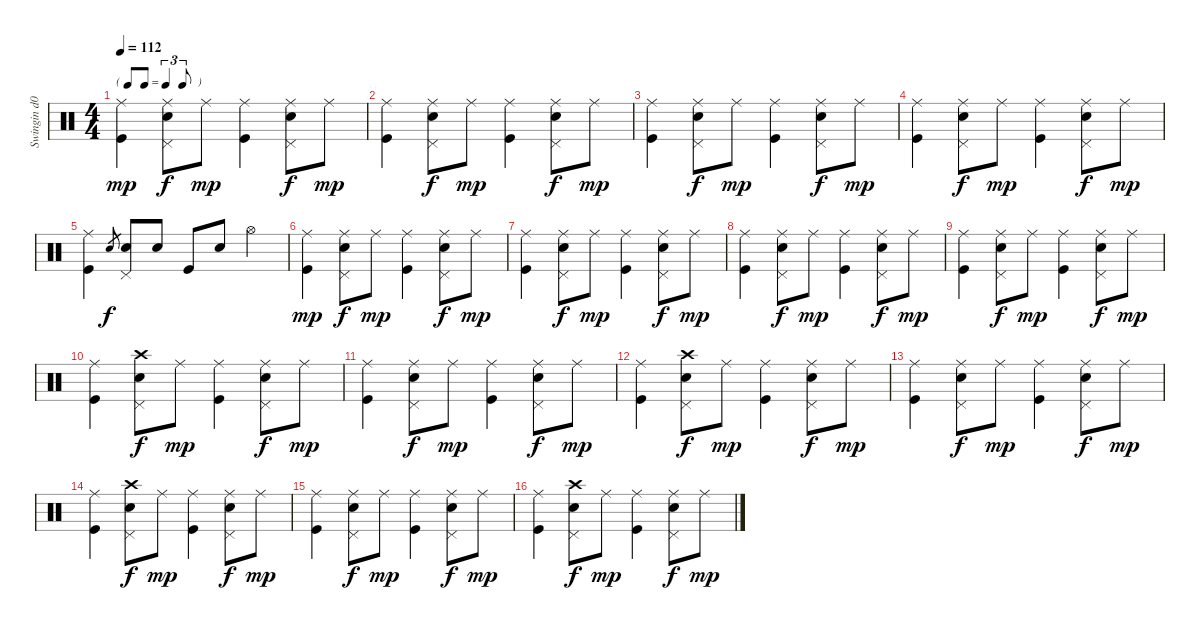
\track ("Swingin d00d" "Swingin d0") {instrument percussion}
\staff {score}
\articulation defaults
\ts (4 4)
\tf triplet8th
\tempo 112
\clef neutral
\ks c
("Ride (middle)" "Kick (hit)").4{dy mp} ("Ride (middle)" "Pedal Hi-Hat (hit)" "Electric Snare (hit)").8{dy f} "Ride (middle)".8{dy mp} ("Ride (middle)" "Kick (hit)").4 ("Ride (middle)" "Pedal Hi-Hat (hit)" "Electric Snare (hit)").8{dy f} "Ride (middle)".8{dy mp} |
("Ride (middle)" "Kick (hit)").4 ("Ride (middle)" "Pedal Hi-Hat (hit)" "Electric Snare (hit)").8{dy f} "Ride (middle)".8{dy mp} ("Ride (middle)" "Kick (hit)").4 ("Ride (middle)" "Pedal Hi-Hat (hit)" "Electric Snare (hit)").8{dy f} "Ride (middle)".8{dy mp} |
("Ride (middle)" "Kick (hit)").4 ("Ride (middle)" "Pedal Hi-Hat (hit)" "Electric Snare (hit)").8{dy f} "Ride (middle)".8{dy mp} ("Ride (middle)" "Kick (hit)").4 ("Ride (middle)" "Pedal Hi-Hat (hit)" "Electric Snare (hit)").8{dy f} "Ride (middle)".8{dy mp} |
("Ride (middle)" "Kick (hit)").4 ("Ride (middle)" "Pedal Hi-Hat (hit)" "Electric Snare (hit)").8{dy f} "Ride (middle)".8{dy mp} ("Ride (middle)" "Kick (hit)").4 ("Ride (middle)" "Pedal Hi-Hat (hit)" "Electric Snare (hit)").8{dy f} "Ride (middle)".8{dy mp} |
("Ride (middle)" "Kick (hit)").4 "Electric Snare (hit)".8{gr dy f} ("Pedal Hi-Hat (hit)" "Electric Snare (hit)").8 "Electric Snare (hit)".8 "Kick (hit)".8 "Electric Snare (hit)".8 "Hi-Hat (open)".4 |
("Ride (middle)" "Kick (hit)").4{dy mp} ("Ride (middle)" "Pedal Hi-Hat (hit)" "Electric Snare (hit)").8{dy f} "Ride (middle)".8{dy mp} ("Ride (middle)" "Kick (hit)").4 ("Ride (middle)" "Pedal Hi-Hat (hit)" "Electric Snare (hit)").8{dy f} "Ride (middle)".8{dy mp} |
("Ride (middle)" "Kick (hit)").4 ("Ride (middle)" "Pedal Hi-Hat (hit)" "Electric Snare (hit)").8{dy f} "Ride (middle)".8{dy mp} ("Ride (middle)" "Kick (hit)").4 ("Ride (middle)" "Pedal Hi-Hat (hit)" "Electric Snare (hit)").8{dy f} "Ride (middle)".8{dy mp} |
("Ride (middle)" "Kick (hit)").4 ("Ride (middle)" "Pedal Hi-Hat (hit)" "Electric Snare (hit)").8{dy f} "Ride (middle)".8{dy mp} ("Ride (middle)" "Kick (hit)").4 ("Ride (middle)" "Pedal Hi-Hat (hit)" "Electric Snare (hit)").8{dy f} "Ride (middle)".8{dy mp} |
("Ride (middle)" "Kick (hit)").4 ("Ride (middle)" "Pedal Hi-Hat (hit)" "Electric Snare (hit)").8{dy f} "Ride (middle)".8{dy mp} ("Ride (middle)" "Kick (hit)").4 ("Ride (middle)" "Pedal Hi-Hat (hit)" "Electric Snare (hit)").8{dy f} "Ride (middle)".8{dy mp} |
("Ride (middle)" "Kick (hit)").4 ("Crash high (hit)" "Pedal Hi-Hat (hit)" "Electric Snare (hit)").8{dy f} "Ride (middle)".8{dy mp} ("Ride (middle)" "Kick (hit)").4 ("Ride (middle)" "Pedal Hi-Hat (hit)" "Electric Snare (hit)").8{dy f} "Ride (middle)".8{dy mp} |
("Ride (middle)" "Kick (hit)").4 ("Ride (middle)" "Pedal Hi-Hat (hit)" "Electric Snare (hit)").8{dy f} "Ride (middle)".8{dy mp} ("Ride (middle)" "Kick (hit)").4 ("Ride (middle)" "Pedal Hi-Hat (hit)" "Electric Snare (hit)").8{dy f} "Ride (middle)".8{dy mp} |
("Ride (middle)" "Kick (hit)").4 ("Crash high (hit)" "Pedal Hi-Hat (hit)" "Electric Snare (hit)").8{dy f} "Ride (middle)".8{dy mp} ("Ride (middle)" "Kick (hit)").4 ("Ride (middle)" "Pedal Hi-Hat (hit)" "Electric Snare (hit)").8{dy f} "Ride (middle)".8{dy mp} |
("Ride (middle)" "Kick (hit)").4 ("Ride (middle)" "Pedal Hi-Hat (hit)" "Electric Snare (hit)").8{dy f} "Ride (middle)".8{dy mp} ("Ride (middle)" "Kick (hit)").4 ("Ride (middle)" "Pedal Hi-Hat (hit)" "Electric Snare (hit)").8{dy f} "Ride (middle)".8{dy mp} |
("Ride (middle)" "Kick (hit)").4 ("Crash high (hit)" "Pedal Hi-Hat (hit)" "Electric Snare (hit)").8{dy f} "Ride (middle)".8{dy mp} ("Ride (middle)" "Kick (hit)").4 ("Ride (middle)" "Pedal Hi-Hat (hit)" "Electric Snare (hit)").8{dy f} "Ride (middle)".8{dy mp} |
("Ride (middle)" "Kick (hit)").4 ("Ride (middle)" "Pedal Hi-Hat (hit)" "Electric Snare (hit)").8{dy f} "Ride (middle)".8{dy mp} ("Ride (middle)" "Kick (hit)").4 ("Ride (middle)" "Pedal Hi-Hat (hit)" "Electric Snare (hit)").8{dy f} "Ride (middle)".8{dy mp} |
("Ride (middle)" "Kick (hit)").4 ("Crash high (hit)" "Pedal Hi-Hat (hit)" "Electric Snare (hit)").8{dy f} "Ride (middle)".8{dy mp} ("Ride (middle)" "Kick (hit)").4 ("Ride (middle)" "Pedal Hi-Hat (hit)" "Electric Snare (hit)").8{dy f} "Ride (middle)".8{dy mp}
